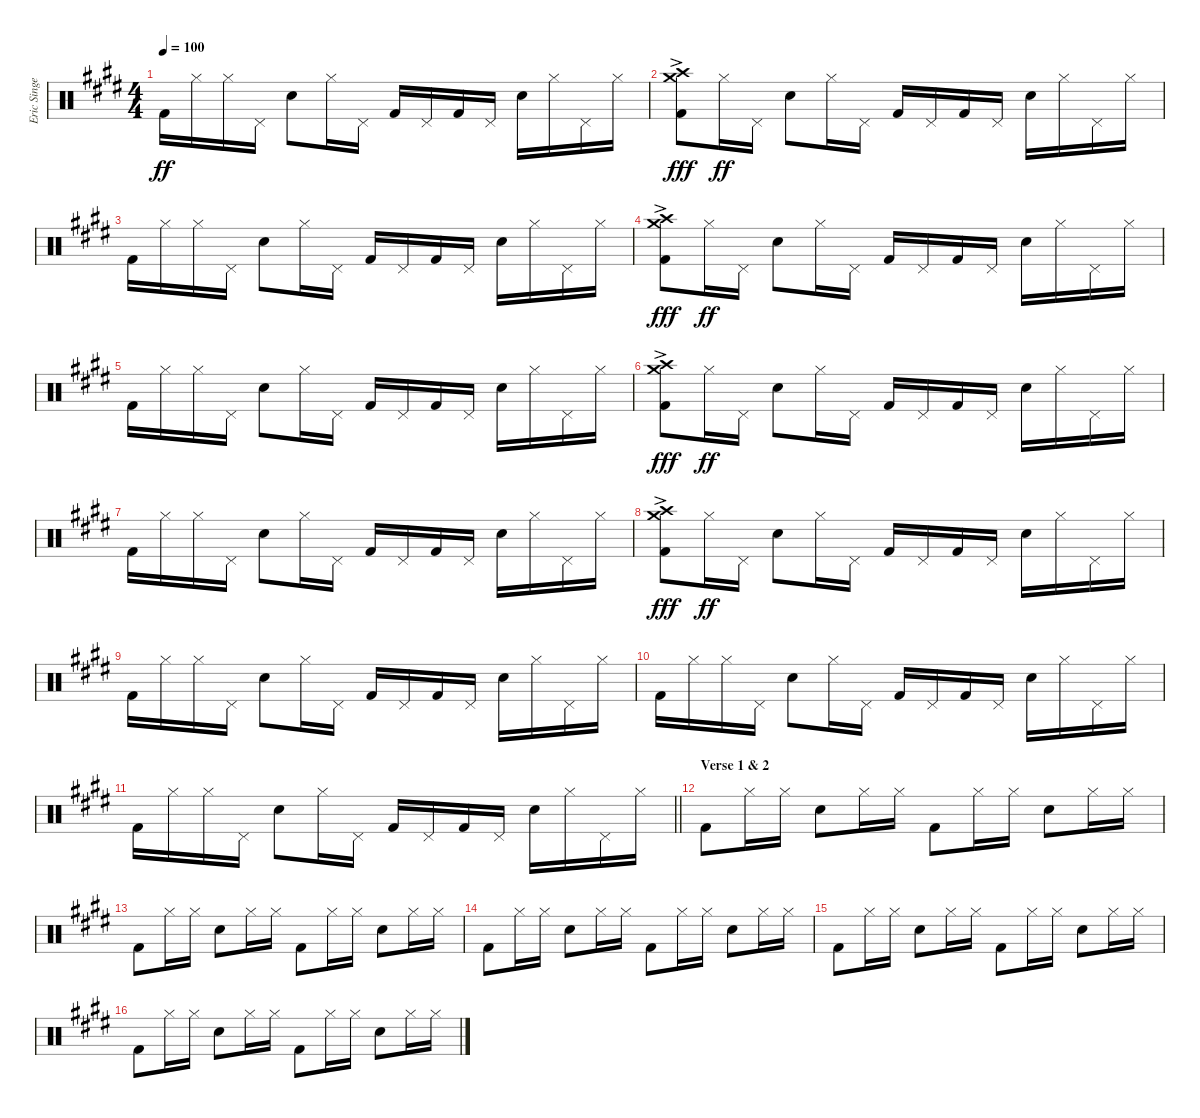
\track ("Eric Singer" "Eric Singe") {instrument percussion}
\staff {score}
\articulation defaults
\ts (4 4)
\tempo 100
\clef neutral
\ks e "Kick (hit) 2".16{dy ff} "Hi-Hat (closed)".16 "Hi-Hat (closed)".16 "Pedal Hi-Hat (hit)".16 "Snare (hit) 2".8 "Hi-Hat (closed)".16 "Pedal Hi-Hat (hit)".16 "Kick (hit) 2".16 "Pedal Hi-Hat (hit)".16 "Kick (hit) 2".16 "Pedal Hi-Hat (hit)".16 "Snare (hit) 2".16 "Hi-Hat (closed)".16 "Pedal Hi-Hat (hit)".16 "Hi-Hat (closed)".16
|
("Crash medium (hit)"{ac} "Crash high (hit)"{ac} "Kick (hit) 2"{ac}).8{dy fff} "Hi-Hat (closed)".16{dy ff} "Pedal Hi-Hat (hit)".16 "Snare (hit) 2".8 "Hi-Hat (closed)".16 "Pedal Hi-Hat (hit)".16 "Kick (hit) 2".16 "Pedal Hi-Hat (hit)".16 "Kick (hit) 2".16 "Pedal Hi-Hat (hit)".16 "Snare (hit) 2".16 "Hi-Hat (closed)".16 "Pedal Hi-Hat (hit)".16 "Hi-Hat (closed)".16 |
"Kick (hit) 2".16 "Hi-Hat (closed)".16 "Hi-Hat (closed)".16 "Pedal Hi-Hat (hit)".16 "Snare (hit) 2".8 "Hi-Hat (closed)".16 "Pedal Hi-Hat (hit)".16 "Kick (hit) 2".16 "Pedal Hi-Hat (hit)".16 "Kick (hit) 2".16 "Pedal Hi-Hat (hit)".16 "Snare (hit) 2".16 "Hi-Hat (closed)".16 "Pedal Hi-Hat (hit)".16 "Hi-Hat (closed)".16 |
("Crash medium (hit)"{ac} "Crash high (hit)"{ac} "Kick (hit) 2"{ac}).8{dy fff} "Hi-Hat (closed)".16{dy ff} "Pedal Hi-Hat (hit)".16 "Snare (hit) 2".8 "Hi-Hat (closed)".16 "Pedal Hi-Hat (hit)".16 "Kick (hit) 2".16 "Pedal Hi-Hat (hit)".16 "Kick (hit) 2".16 "Pedal Hi-Hat (hit)".16 "Snare (hit) 2".16 "Hi-Hat (closed)".16 "Pedal Hi-Hat (hit)".16 "Hi-Hat (closed)".16 |
"Kick (hit) 2".16 "Hi-Hat (closed)".16 "Hi-Hat (closed)".16 "Pedal Hi-Hat (hit)".16 "Snare (hit) 2".8 "Hi-Hat (closed)".16 "Pedal Hi-Hat (hit)".16 "Kick (hit) 2".16 "Pedal Hi-Hat (hit)".16 "Kick (hit) 2".16 "Pedal Hi-Hat (hit)".16 "Snare (hit) 2".16 "Hi-Hat (closed)".16 "Pedal Hi-Hat (hit)".16 "Hi-Hat (closed)".16 |
("Crash medium (hit)"{ac} "Crash high (hit)"{ac} "Kick (hit) 2"{ac}).8{dy fff} "Hi-Hat (closed)".16{dy ff} "Pedal Hi-Hat (hit)".16 "Snare (hit) 2".8 "Hi-Hat (closed)".16 "Pedal Hi-Hat (hit)".16 "Kick (hit) 2".16 "Pedal Hi-Hat (hit)".16 "Kick (hit) 2".16 "Pedal Hi-Hat (hit)".16 "Snare (hit) 2".16 "Hi-Hat (closed)".16 "Pedal Hi-Hat (hit)".16 "Hi-Hat (closed)".16 |
"Kick (hit) 2".16 "Hi-Hat (closed)".16 "Hi-Hat (closed)".16 "Pedal Hi-Hat (hit)".16 "Snare (hit) 2".8 "Hi-Hat (closed)".16 "Pedal Hi-Hat (hit)".16 "Kick (hit) 2".16 "Pedal Hi-Hat (hit)".16 "Kick (hit) 2".16 "Pedal Hi-Hat (hit)".16 "Snare (hit) 2".16 "Hi-Hat (closed)".16 "Pedal Hi-Hat (hit)".16 "Hi-Hat (closed)".16 |
("Crash medium (hit)"{ac} "Crash high (hit)"{ac} "Kick (hit) 2"{ac}).8{dy fff} "Hi-Hat (closed)".16{dy ff} "Pedal Hi-Hat (hit)".16 "Snare (hit) 2".8 "Hi-Hat (closed)".16 "Pedal Hi-Hat (hit)".16 "Kick (hit) 2".16 "Pedal Hi-Hat (hit)".16 "Kick (hit) 2".16 "Pedal Hi-Hat (hit)".16 "Snare (hit) 2".16 "Hi-Hat (closed)".16 "Pedal Hi-Hat (hit)".16 "Hi-Hat (closed)".16 |
"Kick (hit) 2".16 "Hi-Hat (closed)".16 "Hi-Hat (closed)".16 "Pedal Hi-Hat (hit)".16 "Snare (hit) 2".8 "Hi-Hat (closed)".16 "Pedal Hi-Hat (hit)".16 "Kick (hit) 2".16 "Pedal Hi-Hat (hit)".16 "Kick (hit) 2".16 "Pedal Hi-Hat (hit)".16 "Snare (hit) 2".16 "Hi-Hat (closed)".16 "Pedal Hi-Hat (hit)".16 "Hi-Hat (closed)".16 |
"Kick (hit) 2".16 "Hi-Hat (closed)".16 "Hi-Hat (closed)".16 "Pedal Hi-Hat (hit)".16 "Snare (hit) 2".8 "Hi-Hat (closed)".16 "Pedal Hi-Hat (hit)".16 "Kick (hit) 2".16 "Pedal Hi-Hat (hit)".16 "Kick (hit) 2".16 "Pedal Hi-Hat (hit)".16 "Snare (hit) 2".16 "Hi-Hat (closed)".16 "Pedal Hi-Hat (hit)".16 "Hi-Hat (closed)".16 |
\barLineRight lightlight "Kick (hit) 2".16 "Hi-Hat (closed)".16 "Hi-Hat (closed)".16 "Pedal Hi-Hat (hit)".16 "Snare (hit) 2".8 "Hi-Hat (closed)".16 "Pedal Hi-Hat (hit)".16 "Kick (hit) 2".16 "Pedal Hi-Hat (hit)".16 "Kick (hit) 2".16 "Pedal Hi-Hat (hit)".16 "Snare (hit) 2".16 "Hi-Hat (closed)".16 "Pedal Hi-Hat (hit)".16 "Hi-Hat (closed)".16
|
\section ("" "Verse 1 & 2")
"Kick (hit) 2".8 "Hi-Hat (closed)".16 "Hi-Hat (closed)".16 "Snare (hit) 2".8 "Hi-Hat (closed)".16 "Hi-Hat (closed)".16 "Kick (hit) 2".8 "Hi-Hat (closed)".16 "Hi-Hat (closed)".16 "Snare (hit) 2".8 "Hi-Hat (closed)".16 "Hi-Hat (closed)".16 |
"Kick (hit) 2".8 "Hi-Hat (closed)".16 "Hi-Hat (closed)".16 "Snare (hit) 2".8 "Hi-Hat (closed)".16 "Hi-Hat (closed)".16 "Kick (hit) 2".8 "Hi-Hat (closed)".16 "Hi-Hat (closed)".16 "Snare (hit) 2".8 "Hi-Hat (closed)".16 "Hi-Hat (closed)".16 |
"Kick (hit) 2".8 "Hi-Hat (closed)".16 "Hi-Hat (closed)".16 "Snare (hit) 2".8 "Hi-Hat (closed)".16 "Hi-Hat (closed)".16 "Kick (hit) 2".8 "Hi-Hat (closed)".16 "Hi-Hat (closed)".16 "Snare (hit) 2".8 "Hi-Hat (closed)".16 "Hi-Hat (closed)".16 |
"Kick (hit) 2".8 "Hi-Hat (closed)".16 "Hi-Hat (closed)".16 "Snare (hit) 2".8 "Hi-Hat (closed)".16 "Hi-Hat (closed)".16 "Kick (hit) 2".8 "Hi-Hat (closed)".16 "Hi-Hat (closed)".16 "Snare (hit) 2".8 "Hi-Hat (closed)".16 "Hi-Hat (closed)".16 |
"Kick (hit) 2".8 "Hi-Hat (closed)".16 "Hi-Hat (closed)".16 "Snare (hit) 2".8 "Hi-Hat (closed)".16 "Hi-Hat (closed)".16 "Kick (hit) 2".8 "Hi-Hat (closed)".16 "Hi-Hat (closed)".16 "Snare (hit) 2".8 "Hi-Hat (closed)".16 "Hi-Hat (closed)".16
